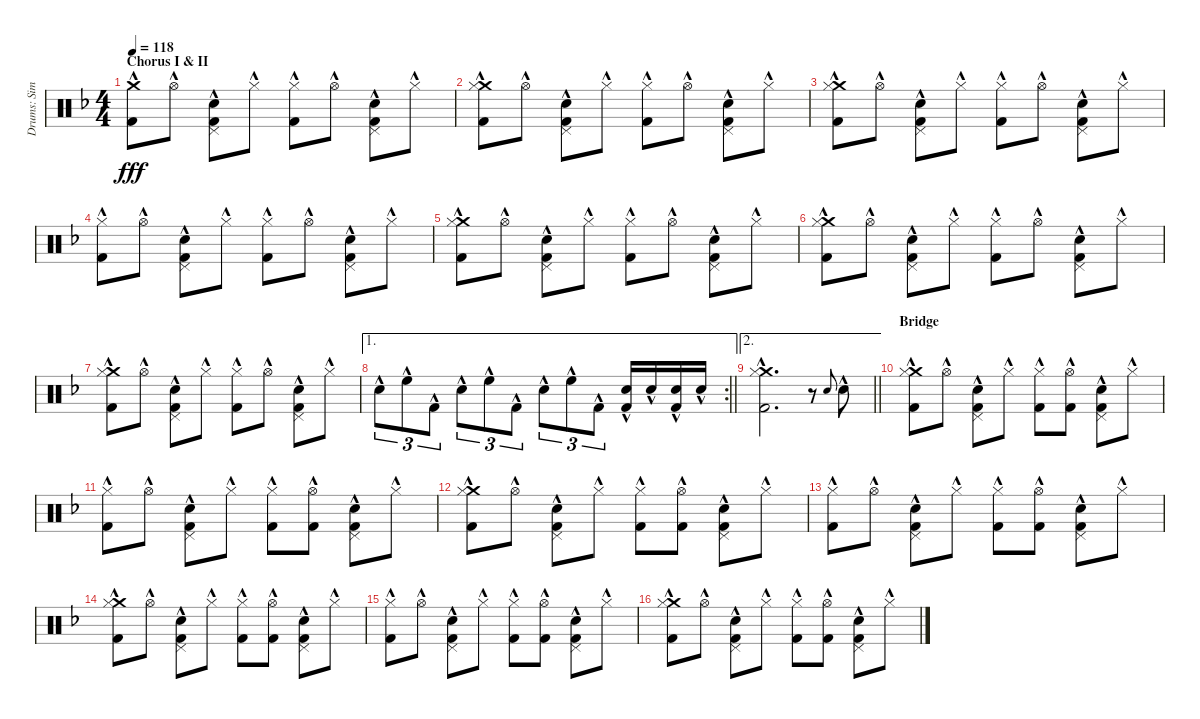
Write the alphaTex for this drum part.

\track ("Drums: Simon" "Drums: Sim") {instrument percussion}
\staff {score}
\articulation defaults
\ts (4 4)
\section ("" "Chorus I & II")
\tempo 118
\clef neutral
\ks f
("Crash medium (hit)"{hac} "Kick (hit) 2"{hac}).8{dy fff} "Hi-Hat (open)"{hac}.8 ("Pedal Hi-Hat (hit)"{hac} "Snare (hit) 2"{hac} "Kick (hit) 2"{hac}).8 "Hi-Hat (closed)"{hac}.8 ("Hi-Hat (closed)"{hac} "Kick (hit) 2"{hac}).8 "Hi-Hat (open)"{hac}.8 ("Pedal Hi-Hat (hit)"{hac} "Snare (hit) 2"{hac} "Kick (hit) 2"{hac}).8 "Hi-Hat (closed)"{hac}.8 |
("Crash medium (hit)"{hac} "Hi-Hat (closed)"{hac} "Kick (hit) 2"{hac}).8 "Hi-Hat (open)"{hac}.8 ("Pedal Hi-Hat (hit)"{hac} "Snare (hit) 2"{hac} "Kick (hit) 2"{hac}).8 "Hi-Hat (closed)"{hac}.8 ("Hi-Hat (closed)"{hac} "Kick (hit) 2"{hac}).8 "Hi-Hat (open)"{hac}.8 ("Pedal Hi-Hat (hit)"{hac} "Snare (hit) 2"{hac} "Kick (hit) 2"{hac}).8 "Hi-Hat (closed)"{hac}.8 |
("Crash medium (hit)"{hac} "Hi-Hat (closed)"{hac} "Kick (hit) 2"{hac}).8 "Hi-Hat (open)"{hac}.8 ("Pedal Hi-Hat (hit)"{hac} "Snare (hit) 2"{hac} "Kick (hit) 2"{hac}).8 "Hi-Hat (closed)"{hac}.8 ("Hi-Hat (closed)"{hac} "Kick (hit) 2"{hac}).8 "Hi-Hat (open)"{hac}.8 ("Pedal Hi-Hat (hit)"{hac} "Snare (hit) 2"{hac} "Kick (hit) 2"{hac}).8 "Hi-Hat (closed)"{hac}.8 |
("Hi-Hat (closed)"{hac} "Kick (hit) 2"{hac}).8 "Hi-Hat (open)"{hac}.8 ("Pedal Hi-Hat (hit)"{hac} "Snare (hit) 2"{hac} "Kick (hit) 2"{hac}).8 "Hi-Hat (closed)"{hac}.8 ("Hi-Hat (closed)"{hac} "Kick (hit) 2"{hac}).8 "Hi-Hat (open)"{hac}.8 ("Pedal Hi-Hat (hit)"{hac} "Snare (hit) 2"{hac} "Kick (hit) 2"{hac}).8 "Hi-Hat (closed)"{hac}.8 |
("Crash medium (hit)"{hac} "Hi-Hat (closed)"{hac} "Kick (hit) 2"{hac}).8 "Hi-Hat (open)"{hac}.8 ("Pedal Hi-Hat (hit)"{hac} "Snare (hit) 2"{hac} "Kick (hit) 2"{hac}).8 "Hi-Hat (closed)"{hac}.8 ("Hi-Hat (closed)"{hac} "Kick (hit) 2"{hac}).8 "Hi-Hat (open)"{hac}.8 ("Pedal Hi-Hat (hit)"{hac} "Snare (hit) 2"{hac} "Kick (hit) 2"{hac}).8 "Hi-Hat (closed)"{hac}.8 |
("Crash medium (hit)"{hac} "Hi-Hat (closed)"{hac} "Kick (hit) 2"{hac}).8 "Hi-Hat (open)"{hac}.8 ("Pedal Hi-Hat (hit)"{hac} "Snare (hit) 2"{hac} "Kick (hit) 2"{hac}).8 "Hi-Hat (closed)"{hac}.8 ("Hi-Hat (closed)"{hac} "Kick (hit) 2"{hac}).8 "Hi-Hat (open)"{hac}.8 ("Pedal Hi-Hat (hit)"{hac} "Snare (hit) 2"{hac} "Kick (hit) 2"{hac}).8 "Hi-Hat (closed)"{hac}.8 |
("Crash medium (hit)"{hac} "Hi-Hat (closed)"{hac} "Kick (hit) 2"{hac}).8 "Hi-Hat (open)"{hac}.8 ("Pedal Hi-Hat (hit)"{hac} "Snare (hit) 2"{hac} "Kick (hit) 2"{hac}).8 "Hi-Hat (closed)"{hac}.8 ("Hi-Hat (closed)"{hac} "Kick (hit) 2"{hac}).8 "Hi-Hat (open)"{hac}.8 ("Pedal Hi-Hat (hit)"{hac} "Snare (hit) 2"{hac} "Kick (hit) 2"{hac}).8 "Hi-Hat (closed)"{hac}.8 |
\ae 1
\rc 2
\barLineRight lightlight "Snare (hit) 2"{hac}.8{tu (3 2)} "High Floor Tom (hit)"{hac}.8{tu (3 2)} "Kick (hit) 2"{hac}.8{tu (3 2)} "Snare (hit) 2"{hac}.8{tu (3 2)} "High Floor Tom (hit)"{hac}.8{tu (3 2)} "Kick (hit) 2"{hac}.8{tu (3 2)} "Snare (hit) 2"{hac}.8{tu (3 2)} "High Floor Tom (hit)"{hac}.8{tu (3 2)} "Kick (hit) 2"{hac}.8{tu (3 2)}
("Snare (hit) 2"{hac} "Kick (hit) 2"{hac}).16 "Snare (hit) 2"{hac}.16 ("Snare (hit) 2"{hac} "Kick (hit) 2"{hac}).16 "Snare (hit) 2"{hac}.16 |
\ae 2
\barLineRight lightlight
("Crash medium (hit)"{hac} "Hi-Hat (closed)"{hac} "Kick (hit) 2"{hac}).2{d} r.8 "Electric Snare (hit)".8{gr onbeat} "Snare (hit) 2"{hac}.8 |
\section ("" "Bridge")
("Crash medium (hit)"{hac} "Hi-Hat (closed)"{hac} "Kick (hit) 2"{hac}).8 "Hi-Hat (open)"{hac}.8 ("Pedal Hi-Hat (hit)"{hac} "Snare (hit) 2"{hac} "Kick (hit) 2"{hac}).8 "Hi-Hat (closed)"{hac}.8 ("Hi-Hat (closed)"{hac} "Kick (hit) 2"{hac}).8 ("Hi-Hat (open)"{hac} "Kick (hit) 2"{hac}).8 ("Pedal Hi-Hat (hit)"{hac} "Snare (hit) 2"{hac} "Kick (hit) 2"{hac}).8 "Hi-Hat (closed)"{hac}.8 |
("Hi-Hat (closed)"{hac} "Kick (hit) 2"{hac}).8 "Hi-Hat (open)"{hac}.8 ("Pedal Hi-Hat (hit)"{hac} "Snare (hit) 2"{hac} "Kick (hit) 2"{hac}).8 "Hi-Hat (closed)"{hac}.8 ("Hi-Hat (closed)"{hac} "Kick (hit) 2"{hac}).8 ("Hi-Hat (open)"{hac} "Kick (hit) 2"{hac}).8 ("Pedal Hi-Hat (hit)"{hac} "Snare (hit) 2"{hac} "Kick (hit) 2"{hac}).8 "Hi-Hat (closed)"{hac}.8 |
("Crash medium (hit)"{hac} "Hi-Hat (closed)"{hac} "Kick (hit) 2"{hac}).8 "Hi-Hat (open)"{hac}.8 ("Pedal Hi-Hat (hit)"{hac} "Snare (hit) 2"{hac} "Kick (hit) 2"{hac}).8 "Hi-Hat (closed)"{hac}.8 ("Hi-Hat (closed)"{hac} "Kick (hit) 2"{hac}).8 ("Hi-Hat (open)"{hac} "Kick (hit) 2"{hac}).8 ("Pedal Hi-Hat (hit)"{hac} "Snare (hit) 2"{hac} "Kick (hit) 2"{hac}).8 "Hi-Hat (closed)"{hac}.8 |
("Hi-Hat (closed)"{hac} "Kick (hit) 2"{hac}).8 "Hi-Hat (open)"{hac}.8 ("Pedal Hi-Hat (hit)"{hac} "Snare (hit) 2"{hac} "Kick (hit) 2"{hac}).8 "Hi-Hat (closed)"{hac}.8 ("Hi-Hat (closed)"{hac} "Kick (hit) 2"{hac}).8 ("Hi-Hat (open)"{hac} "Kick (hit) 2"{hac}).8 ("Pedal Hi-Hat (hit)"{hac} "Snare (hit) 2"{hac} "Kick (hit) 2"{hac}).8 "Hi-Hat (closed)"{hac}.8 |
("Crash medium (hit)"{hac} "Hi-Hat (closed)"{hac} "Kick (hit) 2"{hac}).8 "Hi-Hat (open)"{hac}.8 ("Pedal Hi-Hat (hit)"{hac} "Snare (hit) 2"{hac} "Kick (hit) 2"{hac}).8 "Hi-Hat (closed)"{hac}.8 ("Hi-Hat (closed)"{hac} "Kick (hit) 2"{hac}).8 ("Hi-Hat (open)"{hac} "Kick (hit) 2"{hac}).8 ("Pedal Hi-Hat (hit)"{hac} "Snare (hit) 2"{hac} "Kick (hit) 2"{hac}).8 "Hi-Hat (closed)"{hac}.8 |
("Hi-Hat (closed)"{hac} "Kick (hit) 2"{hac}).8 "Hi-Hat (open)"{hac}.8 ("Pedal Hi-Hat (hit)"{hac} "Snare (hit) 2"{hac} "Kick (hit) 2"{hac}).8 "Hi-Hat (closed)"{hac}.8 ("Hi-Hat (closed)"{hac} "Kick (hit) 2"{hac}).8 ("Hi-Hat (open)"{hac} "Kick (hit) 2"{hac}).8 ("Pedal Hi-Hat (hit)"{hac} "Snare (hit) 2"{hac} "Kick (hit) 2"{hac}).8 "Hi-Hat (closed)"{hac}.8 |
("Crash medium (hit)"{hac} "Hi-Hat (closed)"{hac} "Kick (hit) 2"{hac}).8 "Hi-Hat (open)"{hac}.8 ("Pedal Hi-Hat (hit)"{hac} "Snare (hit) 2"{hac} "Kick (hit) 2"{hac}).8 "Hi-Hat (closed)"{hac}.8 ("Hi-Hat (closed)"{hac} "Kick (hit) 2"{hac}).8 ("Hi-Hat (open)"{hac} "Kick (hit) 2"{hac}).8 ("Pedal Hi-Hat (hit)"{hac} "Snare (hit) 2"{hac} "Kick (hit) 2"{hac}).8 "Hi-Hat (closed)"{hac}.8
